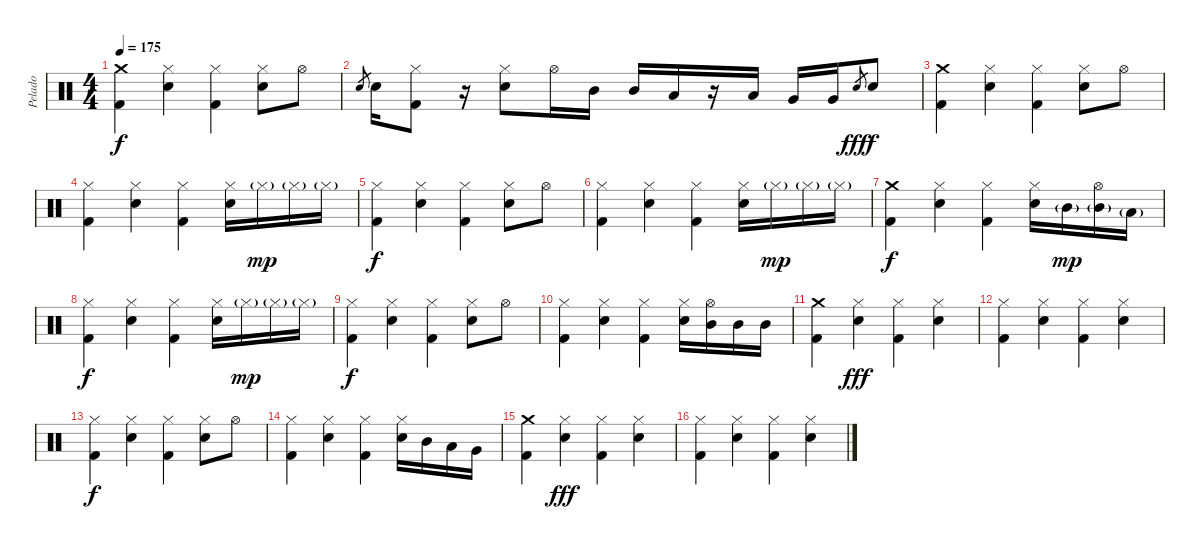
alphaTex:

\track ("Pelado" "Pelado") {instrument percussion}
\staff {score}
\articulation defaults
\ts (4 4)
\tempo 175
\clef neutral
\ks c
("Crash medium (hit)" "Kick (hit) 2").4{dy f} ("Hi-Hat (closed)" "Electric Snare (hit)").4 ("Hi-Hat (closed)" "Kick (hit) 2").4 ("Hi-Hat (closed)" "Electric Snare (hit)").8 "Hi-Hat (open)".8 |
"Electric Snare (hit)".8{gr} "Electric Snare (hit)".16 ("Hi-Hat (closed)" "Kick (hit) 2").8 r.16 ("Hi-Hat (closed)" "Electric Snare (hit)").8 "Hi-Hat (open)".16 "Mid Tom (hit)".16 "Mid Tom (hit)".16 "Low Tom (hit)".16 r.16 "Low Tom (hit)".16 "Very Low Tom (hit)".16 "Very Low Tom (hit)".16 "Electric Snare (hit)".8{gr dy fff} "Electric Snare (hit)".8{dy f} |
("Crash medium (hit)" "Kick (hit) 2").4 ("Hi-Hat (closed)" "Electric Snare (hit)").4 ("Hi-Hat (closed)" "Kick (hit) 2").4 ("Hi-Hat (closed)" "Electric Snare (hit)").8 "Hi-Hat (open)".8 |
("Hi-Hat (closed)" "Kick (hit) 2").4 ("Hi-Hat (closed)" "Electric Snare (hit)").4 ("Hi-Hat (closed)" "Kick (hit) 2").4 ("Hi-Hat (closed)" "Electric Snare (hit)").16 "Hi-Hat (closed)"{g}.16{dy mp} "Hi-Hat (closed)"{g}.16 "Hi-Hat (closed)"{g}.16 |
("Hi-Hat (closed)" "Kick (hit) 2").4{dy f} ("Hi-Hat (closed)" "Electric Snare (hit)").4 ("Hi-Hat (closed)" "Kick (hit) 2").4 ("Hi-Hat (closed)" "Electric Snare (hit)").8 "Hi-Hat (open)".8 |
("Hi-Hat (closed)" "Kick (hit) 2").4 ("Hi-Hat (closed)" "Electric Snare (hit)").4 ("Hi-Hat (closed)" "Kick (hit) 2").4 ("Hi-Hat (closed)" "Electric Snare (hit)").16 "Hi-Hat (closed)"{g}.16{dy mp} "Hi-Hat (closed)"{g}.16 "Hi-Hat (closed)"{g}.16 |
("Crash medium (hit)" "Kick (hit) 2").4{dy f} ("Hi-Hat (closed)" "Electric Snare (hit)").4 ("Hi-Hat (closed)" "Kick (hit) 2").4 ("Hi-Hat (closed)" "Electric Snare (hit)").16 "Mid Tom (hit)"{g}.16{dy mp} ("Hi-Hat (open)" "Mid Tom (hit)"{g}).16 "Low Tom (hit)"{g}.16 |
("Hi-Hat (closed)" "Kick (hit) 2").4{dy f} ("Hi-Hat (closed)" "Electric Snare (hit)").4 ("Hi-Hat (closed)" "Kick (hit) 2").4 ("Hi-Hat (closed)" "Electric Snare (hit)").16 "Hi-Hat (closed)"{g}.16{dy mp} "Hi-Hat (closed)"{g}.16 "Hi-Hat (closed)"{g}.16 |
("Hi-Hat (closed)" "Kick (hit) 2").4{dy f} ("Hi-Hat (closed)" "Electric Snare (hit)").4 ("Hi-Hat (closed)" "Kick (hit) 2").4 ("Hi-Hat (closed)" "Electric Snare (hit)").8 "Hi-Hat (open)".8 |
("Hi-Hat (closed)" "Kick (hit) 2").4 ("Hi-Hat (closed)" "Electric Snare (hit)").4 ("Hi-Hat (closed)" "Kick (hit) 2").4 ("Hi-Hat (closed)" "Electric Snare (hit)").16 ("Hi-Hat (open)" "Mid Tom (hit)").16 "Mid Tom (hit)".16 "Mid Tom (hit)".16 |
("Crash medium (hit)" "Kick (hit) 2").4 ("Hi-Hat (closed)" "Electric Snare (hit)").4{dy fff} ("Hi-Hat (closed)" "Kick (hit) 2").4 ("Hi-Hat (closed)" "Electric Snare (hit)").4 |
("Hi-Hat (closed)" "Kick (hit) 2").4 ("Hi-Hat (closed)" "Electric Snare (hit)").4 ("Hi-Hat (closed)" "Kick (hit) 2").4 ("Hi-Hat (closed)" "Electric Snare (hit)").4 |
("Hi-Hat (closed)" "Kick (hit) 2").4{dy f} ("Hi-Hat (closed)" "Electric Snare (hit)").4 ("Hi-Hat (closed)" "Kick (hit) 2").4 ("Hi-Hat (closed)" "Electric Snare (hit)").8 "Hi-Hat (open)".8 |
("Hi-Hat (closed)" "Kick (hit) 2").4 ("Hi-Hat (closed)" "Electric Snare (hit)").4 ("Hi-Hat (closed)" "Kick (hit) 2").4 ("Hi-Hat (closed)" "Electric Snare (hit)").16 "Mid Tom (hit)".16 "Low Tom (hit)".16 "Very Low Tom (hit)".16 |
("Crash medium (hit)" "Kick (hit) 2").4 ("Hi-Hat (closed)" "Electric Snare (hit)").4{dy fff} ("Hi-Hat (closed)" "Kick (hit) 2").4 ("Hi-Hat (closed)" "Electric Snare (hit)").4 |
("Hi-Hat (closed)" "Kick (hit) 2").4 ("Hi-Hat (closed)" "Electric Snare (hit)").4 ("Hi-Hat (closed)" "Kick (hit) 2").4 ("Hi-Hat (closed)" "Electric Snare (hit)").4
